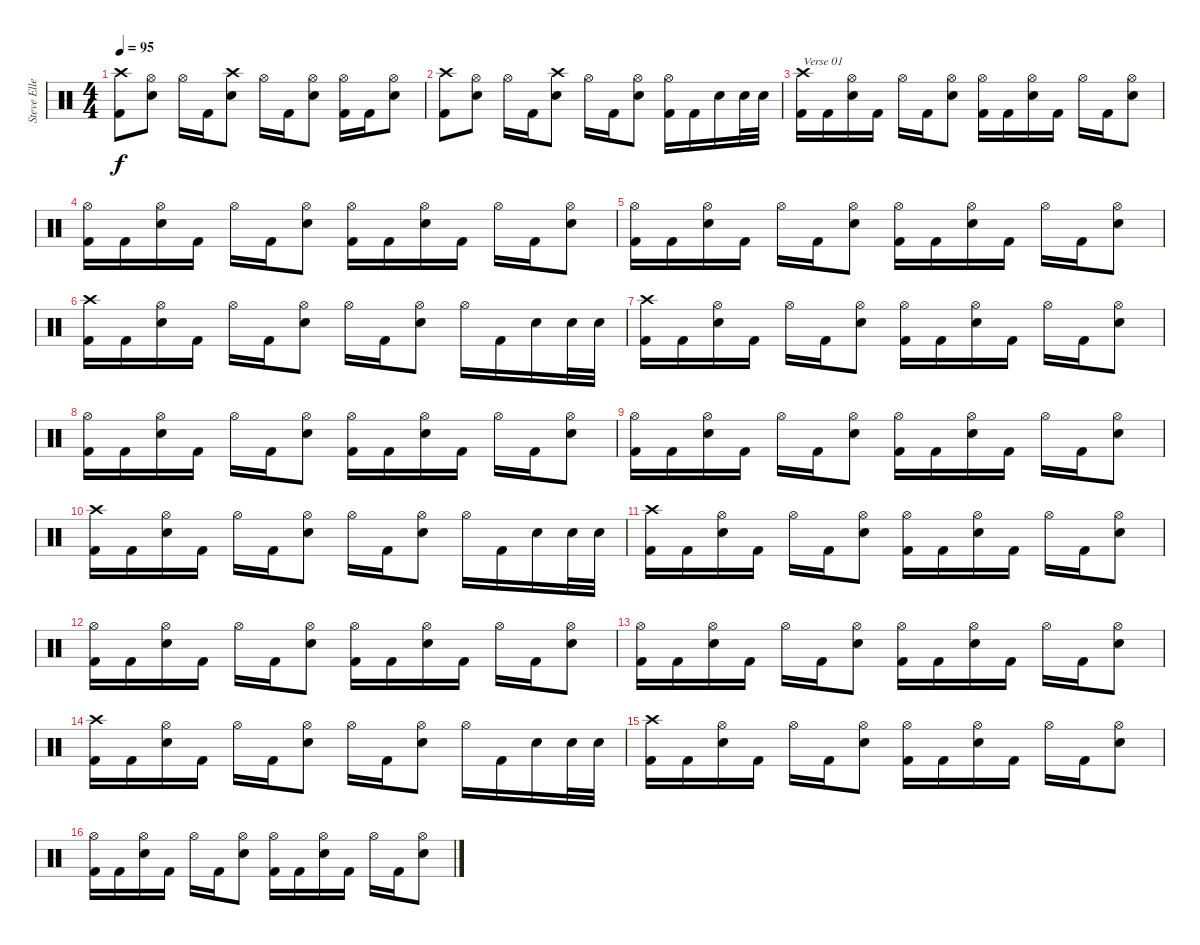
\track ("Steve Ellett" "Steve Elle") {instrument percussion}
\staff {score}
\articulation defaults
\ts (4 4)
\tempo 95
\clef neutral
\ks c
("Crash high (hit)" "Kick (hit) 2").8{dy f} ("Hi-Hat (open)" "Snare (hit) 2").8 "Hi-Hat (open)".16 "Kick (hit) 2".16 ("Crash high (hit)" "Snare (hit) 2").8 "Hi-Hat (open)".16 "Kick (hit) 2".16 ("Hi-Hat (open)" "Snare (hit) 2").8 ("Hi-Hat (open)" "Kick (hit) 2").16 "Kick (hit) 2".16 ("Hi-Hat (open)" "Snare (hit) 2").8 |
("Crash high (hit)" "Kick (hit) 2").8 ("Hi-Hat (open)" "Snare (hit) 2").8 "Hi-Hat (open)".16 "Kick (hit) 2".16 ("Crash high (hit)" "Snare (hit) 2").8 "Hi-Hat (open)".16 "Kick (hit) 2".16 ("Hi-Hat (open)" "Snare (hit) 2").8 ("Hi-Hat (open)" "Kick (hit) 2").16 "Kick (hit) 2".16 "Snare (hit) 2".16 "Snare (hit) 2".32 "Snare (hit) 2".32 |
("Crash high (hit)" "Kick (hit) 2").16{txt "Verse 01"} "Kick (hit) 2".16 ("Hi-Hat (open)" "Snare (hit) 2").16 "Kick (hit) 2".16 "Hi-Hat (open)".16 "Kick (hit) 2".16 ("Hi-Hat (open)" "Snare (hit) 2").8 ("Hi-Hat (open)" "Kick (hit) 2").16 "Kick (hit) 2".16 ("Hi-Hat (open)" "Snare (hit) 2").16 "Kick (hit) 2".16 "Hi-Hat (open)".16 "Kick (hit) 2".16 ("Hi-Hat (open)" "Snare (hit) 2").8 |
("Hi-Hat (open)" "Kick (hit) 2").16 "Kick (hit) 2".16 ("Hi-Hat (open)" "Snare (hit) 2").16 "Kick (hit) 2".16 "Hi-Hat (open)".16 "Kick (hit) 2".16 ("Hi-Hat (open)" "Snare (hit) 2").8 ("Hi-Hat (open)" "Kick (hit) 2").16 "Kick (hit) 2".16 ("Hi-Hat (open)" "Snare (hit) 2").16 "Kick (hit) 2".16 "Hi-Hat (open)".16 "Kick (hit) 2".16 ("Hi-Hat (open)" "Snare (hit) 2").8 |
("Hi-Hat (open)" "Kick (hit) 2").16 "Kick (hit) 2".16 ("Hi-Hat (open)" "Snare (hit) 2").16 "Kick (hit) 2".16 "Hi-Hat (open)".16 "Kick (hit) 2".16 ("Hi-Hat (open)" "Snare (hit) 2").8 ("Hi-Hat (open)" "Kick (hit) 2").16 "Kick (hit) 2".16 ("Hi-Hat (open)" "Snare (hit) 2").16 "Kick (hit) 2".16 "Hi-Hat (open)".16 "Kick (hit) 2".16 ("Hi-Hat (open)" "Snare (hit) 2").8 |
("Crash high (hit)" "Kick (hit) 2").16 "Kick (hit) 2".16 ("Hi-Hat (open)" "Snare (hit) 2").16 "Kick (hit) 2".16 "Hi-Hat (open)".16 "Kick (hit) 2".16 ("Hi-Hat (open)" "Snare (hit) 2").8 "Hi-Hat (open)".16 "Kick (hit) 2".16 ("Hi-Hat (open)" "Snare (hit) 2").8 "Hi-Hat (open)".16 "Kick (hit) 2".16 "Snare (hit) 2".16 "Snare (hit) 2".32 "Snare (hit) 2".32 |
("Crash high (hit)" "Kick (hit) 2").16 "Kick (hit) 2".16 ("Hi-Hat (open)" "Snare (hit) 2").16 "Kick (hit) 2".16 "Hi-Hat (open)".16 "Kick (hit) 2".16 ("Hi-Hat (open)" "Snare (hit) 2").8 ("Hi-Hat (open)" "Kick (hit) 2").16 "Kick (hit) 2".16 ("Hi-Hat (open)" "Snare (hit) 2").16 "Kick (hit) 2".16 "Hi-Hat (open)".16 "Kick (hit) 2".16 ("Hi-Hat (open)" "Snare (hit) 2").8 |
("Hi-Hat (open)" "Kick (hit) 2").16 "Kick (hit) 2".16 ("Hi-Hat (open)" "Snare (hit) 2").16 "Kick (hit) 2".16 "Hi-Hat (open)".16 "Kick (hit) 2".16 ("Hi-Hat (open)" "Snare (hit) 2").8 ("Hi-Hat (open)" "Kick (hit) 2").16 "Kick (hit) 2".16 ("Hi-Hat (open)" "Snare (hit) 2").16 "Kick (hit) 2".16 "Hi-Hat (open)".16 "Kick (hit) 2".16 ("Hi-Hat (open)" "Snare (hit) 2").8 |
("Hi-Hat (open)" "Kick (hit) 2").16 "Kick (hit) 2".16 ("Hi-Hat (open)" "Snare (hit) 2").16 "Kick (hit) 2".16 "Hi-Hat (open)".16 "Kick (hit) 2".16 ("Hi-Hat (open)" "Snare (hit) 2").8 ("Hi-Hat (open)" "Kick (hit) 2").16 "Kick (hit) 2".16 ("Hi-Hat (open)" "Snare (hit) 2").16 "Kick (hit) 2".16 "Hi-Hat (open)".16 "Kick (hit) 2".16 ("Hi-Hat (open)" "Snare (hit) 2").8 |
("Crash high (hit)" "Kick (hit) 2").16 "Kick (hit) 2".16 ("Hi-Hat (open)" "Snare (hit) 2").16 "Kick (hit) 2".16 "Hi-Hat (open)".16 "Kick (hit) 2".16 ("Hi-Hat (open)" "Snare (hit) 2").8 "Hi-Hat (open)".16 "Kick (hit) 2".16 ("Hi-Hat (open)" "Snare (hit) 2").8 "Hi-Hat (open)".16 "Kick (hit) 2".16 "Snare (hit) 2".16 "Snare (hit) 2".32 "Snare (hit) 2".32 |
("Crash high (hit)" "Kick (hit) 2").16 "Kick (hit) 2".16 ("Hi-Hat (open)" "Snare (hit) 2").16 "Kick (hit) 2".16 "Hi-Hat (open)".16 "Kick (hit) 2".16 ("Hi-Hat (open)" "Snare (hit) 2").8 ("Hi-Hat (open)" "Kick (hit) 2").16 "Kick (hit) 2".16 ("Hi-Hat (open)" "Snare (hit) 2").16 "Kick (hit) 2".16 "Hi-Hat (open)".16 "Kick (hit) 2".16 ("Hi-Hat (open)" "Snare (hit) 2").8 |
("Hi-Hat (open)" "Kick (hit) 2").16 "Kick (hit) 2".16 ("Hi-Hat (open)" "Snare (hit) 2").16 "Kick (hit) 2".16 "Hi-Hat (open)".16 "Kick (hit) 2".16 ("Hi-Hat (open)" "Snare (hit) 2").8 ("Hi-Hat (open)" "Kick (hit) 2").16 "Kick (hit) 2".16 ("Hi-Hat (open)" "Snare (hit) 2").16 "Kick (hit) 2".16 "Hi-Hat (open)".16 "Kick (hit) 2".16 ("Hi-Hat (open)" "Snare (hit) 2").8 |
("Hi-Hat (open)" "Kick (hit) 2").16 "Kick (hit) 2".16 ("Hi-Hat (open)" "Snare (hit) 2").16 "Kick (hit) 2".16 "Hi-Hat (open)".16 "Kick (hit) 2".16 ("Hi-Hat (open)" "Snare (hit) 2").8 ("Hi-Hat (open)" "Kick (hit) 2").16 "Kick (hit) 2".16 ("Hi-Hat (open)" "Snare (hit) 2").16 "Kick (hit) 2".16 "Hi-Hat (open)".16 "Kick (hit) 2".16 ("Hi-Hat (open)" "Snare (hit) 2").8 |
("Crash high (hit)" "Kick (hit) 2").16 "Kick (hit) 2".16 ("Hi-Hat (open)" "Snare (hit) 2").16 "Kick (hit) 2".16 "Hi-Hat (open)".16 "Kick (hit) 2".16 ("Hi-Hat (open)" "Snare (hit) 2").8 "Hi-Hat (open)".16 "Kick (hit) 2".16 ("Hi-Hat (open)" "Snare (hit) 2").8 "Hi-Hat (open)".16 "Kick (hit) 2".16 "Snare (hit) 2".16 "Snare (hit) 2".32 "Snare (hit) 2".32 |
("Crash high (hit)" "Kick (hit) 2").16 "Kick (hit) 2".16 ("Hi-Hat (open)" "Snare (hit) 2").16 "Kick (hit) 2".16 "Hi-Hat (open)".16 "Kick (hit) 2".16 ("Hi-Hat (open)" "Snare (hit) 2").8 ("Hi-Hat (open)" "Kick (hit) 2").16 "Kick (hit) 2".16 ("Hi-Hat (open)" "Snare (hit) 2").16 "Kick (hit) 2".16 "Hi-Hat (open)".16 "Kick (hit) 2".16 ("Hi-Hat (open)" "Snare (hit) 2").8 |
("Hi-Hat (open)" "Kick (hit) 2").16 "Kick (hit) 2".16 ("Hi-Hat (open)" "Snare (hit) 2").16 "Kick (hit) 2".16 "Hi-Hat (open)".16 "Kick (hit) 2".16 ("Hi-Hat (open)" "Snare (hit) 2").8 ("Hi-Hat (open)" "Kick (hit) 2").16 "Kick (hit) 2".16 ("Hi-Hat (open)" "Snare (hit) 2").16 "Kick (hit) 2".16 "Hi-Hat (open)".16 "Kick (hit) 2".16 ("Hi-Hat (open)" "Snare (hit) 2").8
